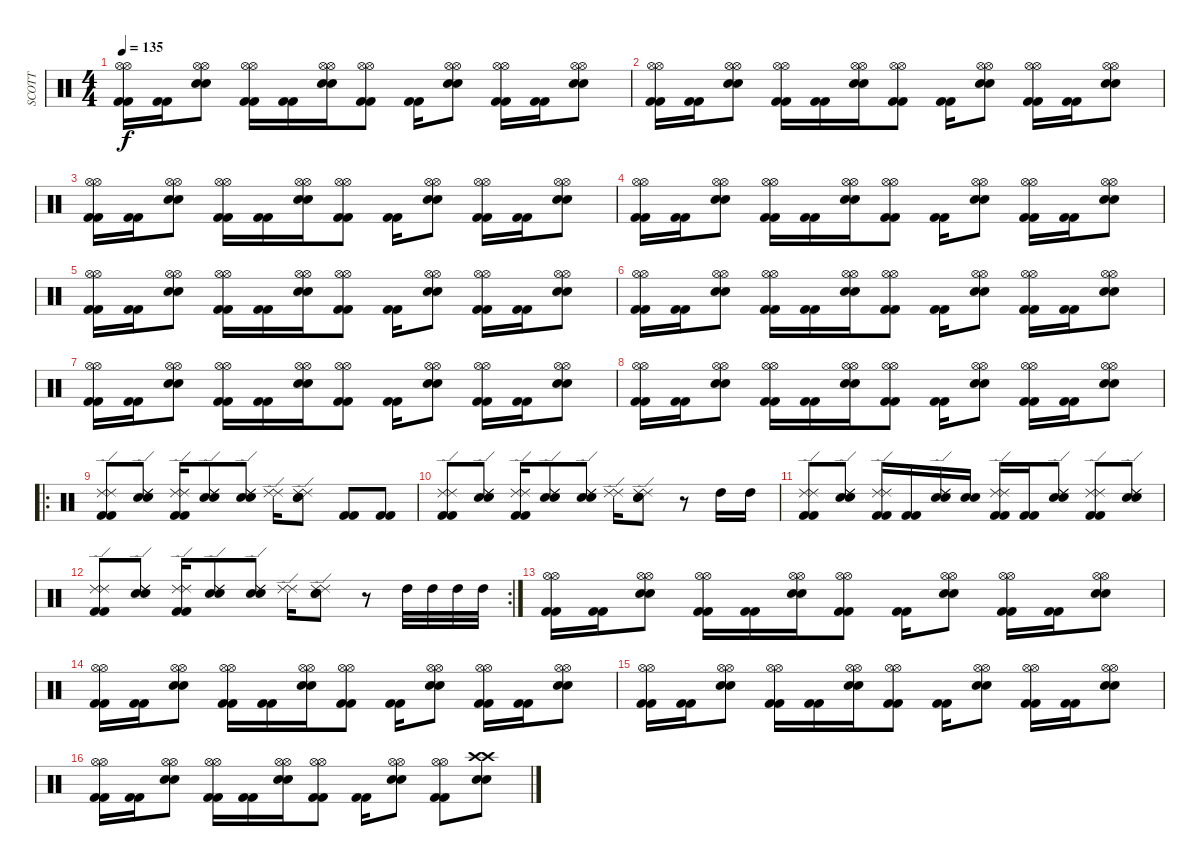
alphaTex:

\track ("SCOTT" "SCOTT") {instrument percussion}
\staff {score}
\articulation defaults
\ts (4 4)
\tempo 135
\clef neutral
\ks c
("Kick (hit) 2" "Kick (hit) 2" "Hi-Hat (open)" "Hi-Hat (open)").16{dy f} ("Kick (hit) 2" "Kick (hit) 2").16 ("Snare (hit) 2" "Snare (hit) 2" "Hi-Hat (open)" "Hi-Hat (open)").8 ("Kick (hit) 2" "Kick (hit) 2" "Hi-Hat (open)" "Hi-Hat (open)").16 ("Kick (hit) 2" "Kick (hit) 2").16 ("Snare (hit) 2" "Snare (hit) 2" "Hi-Hat (open)" "Hi-Hat (open)").16 ("Kick (hit) 2" "Kick (hit) 2" "Hi-Hat (open)" "Hi-Hat (open)").8 ("Kick (hit) 2" "Kick (hit) 2").16 ("Snare (hit) 2" "Snare (hit) 2" "Hi-Hat (open)" "Hi-Hat (open)").8 ("Kick (hit) 2" "Kick (hit) 2" "Hi-Hat (open)" "Hi-Hat (open)").16 ("Kick (hit) 2" "Kick (hit) 2").16 ("Snare (hit) 2" "Snare (hit) 2" "Hi-Hat (open)" "Hi-Hat (open)").8 |
("Kick (hit) 2" "Kick (hit) 2" "Hi-Hat (open)" "Hi-Hat (open)").16 ("Kick (hit) 2" "Kick (hit) 2").16 ("Snare (hit) 2" "Snare (hit) 2" "Hi-Hat (open)" "Hi-Hat (open)").8 ("Kick (hit) 2" "Kick (hit) 2" "Hi-Hat (open)" "Hi-Hat (open)").16 ("Kick (hit) 2" "Kick (hit) 2").16 ("Snare (hit) 2" "Snare (hit) 2" "Hi-Hat (open)" "Hi-Hat (open)").16 ("Kick (hit) 2" "Kick (hit) 2" "Hi-Hat (open)" "Hi-Hat (open)").8 ("Kick (hit) 2" "Kick (hit) 2").16 ("Snare (hit) 2" "Snare (hit) 2" "Hi-Hat (open)" "Hi-Hat (open)").8 ("Kick (hit) 2" "Kick (hit) 2" "Hi-Hat (open)" "Hi-Hat (open)").16 ("Kick (hit) 2" "Kick (hit) 2").16 ("Snare (hit) 2" "Snare (hit) 2" "Hi-Hat (open)" "Hi-Hat (open)").8 |
("Kick (hit) 2" "Kick (hit) 2" "Hi-Hat (open)" "Hi-Hat (open)").16 ("Kick (hit) 2" "Kick (hit) 2").16 ("Snare (hit) 2" "Snare (hit) 2" "Hi-Hat (open)" "Hi-Hat (open)").8 ("Kick (hit) 2" "Kick (hit) 2" "Hi-Hat (open)" "Hi-Hat (open)").16 ("Kick (hit) 2" "Kick (hit) 2").16 ("Snare (hit) 2" "Snare (hit) 2" "Hi-Hat (open)" "Hi-Hat (open)").16 ("Kick (hit) 2" "Kick (hit) 2" "Hi-Hat (open)" "Hi-Hat (open)").8 ("Kick (hit) 2" "Kick (hit) 2").16 ("Snare (hit) 2" "Snare (hit) 2" "Hi-Hat (open)" "Hi-Hat (open)").8 ("Kick (hit) 2" "Kick (hit) 2" "Hi-Hat (open)" "Hi-Hat (open)").16 ("Kick (hit) 2" "Kick (hit) 2").16 ("Snare (hit) 2" "Snare (hit) 2" "Hi-Hat (open)" "Hi-Hat (open)").8 |
("Kick (hit) 2" "Kick (hit) 2" "Hi-Hat (open)" "Hi-Hat (open)").16 ("Kick (hit) 2" "Kick (hit) 2").16 ("Snare (hit) 2" "Snare (hit) 2" "Hi-Hat (open)" "Hi-Hat (open)").8 ("Kick (hit) 2" "Kick (hit) 2" "Hi-Hat (open)" "Hi-Hat (open)").16 ("Kick (hit) 2" "Kick (hit) 2").16 ("Snare (hit) 2" "Snare (hit) 2" "Hi-Hat (open)" "Hi-Hat (open)").16 ("Kick (hit) 2" "Kick (hit) 2" "Hi-Hat (open)" "Hi-Hat (open)").8 ("Kick (hit) 2" "Kick (hit) 2").16 ("Snare (hit) 2" "Snare (hit) 2" "Hi-Hat (open)" "Hi-Hat (open)").8 ("Kick (hit) 2" "Kick (hit) 2" "Hi-Hat (open)" "Hi-Hat (open)").16 ("Kick (hit) 2" "Kick (hit) 2").16 ("Snare (hit) 2" "Snare (hit) 2" "Hi-Hat (open)" "Hi-Hat (open)").8 |
("Kick (hit) 2" "Kick (hit) 2" "Hi-Hat (open)" "Hi-Hat (open)").16 ("Kick (hit) 2" "Kick (hit) 2").16 ("Snare (hit) 2" "Snare (hit) 2" "Hi-Hat (open)" "Hi-Hat (open)").8 ("Kick (hit) 2" "Kick (hit) 2" "Hi-Hat (open)" "Hi-Hat (open)").16 ("Kick (hit) 2" "Kick (hit) 2").16 ("Snare (hit) 2" "Snare (hit) 2" "Hi-Hat (open)" "Hi-Hat (open)").16 ("Kick (hit) 2" "Kick (hit) 2" "Hi-Hat (open)" "Hi-Hat (open)").8 ("Kick (hit) 2" "Kick (hit) 2").16 ("Snare (hit) 2" "Snare (hit) 2" "Hi-Hat (open)" "Hi-Hat (open)").8 ("Kick (hit) 2" "Kick (hit) 2" "Hi-Hat (open)" "Hi-Hat (open)").16 ("Kick (hit) 2" "Kick (hit) 2").16 ("Snare (hit) 2" "Snare (hit) 2" "Hi-Hat (open)" "Hi-Hat (open)").8 |
("Kick (hit) 2" "Kick (hit) 2" "Hi-Hat (open)" "Hi-Hat (open)").16 ("Kick (hit) 2" "Kick (hit) 2").16 ("Snare (hit) 2" "Snare (hit) 2" "Hi-Hat (open)" "Hi-Hat (open)").8 ("Kick (hit) 2" "Kick (hit) 2" "Hi-Hat (open)" "Hi-Hat (open)").16 ("Kick (hit) 2" "Kick (hit) 2").16 ("Snare (hit) 2" "Snare (hit) 2" "Hi-Hat (open)" "Hi-Hat (open)").16 ("Kick (hit) 2" "Kick (hit) 2" "Hi-Hat (open)" "Hi-Hat (open)").8 ("Kick (hit) 2" "Kick (hit) 2").16 ("Snare (hit) 2" "Snare (hit) 2" "Hi-Hat (open)" "Hi-Hat (open)").8 ("Kick (hit) 2" "Kick (hit) 2" "Hi-Hat (open)" "Hi-Hat (open)").16 ("Kick (hit) 2" "Kick (hit) 2").16 ("Snare (hit) 2" "Snare (hit) 2" "Hi-Hat (open)" "Hi-Hat (open)").8 |
("Kick (hit) 2" "Kick (hit) 2" "Hi-Hat (open)" "Hi-Hat (open)").16 ("Kick (hit) 2" "Kick (hit) 2").16 ("Snare (hit) 2" "Snare (hit) 2" "Hi-Hat (open)" "Hi-Hat (open)").8 ("Kick (hit) 2" "Kick (hit) 2" "Hi-Hat (open)" "Hi-Hat (open)").16 ("Kick (hit) 2" "Kick (hit) 2").16 ("Snare (hit) 2" "Snare (hit) 2" "Hi-Hat (open)" "Hi-Hat (open)").16 ("Kick (hit) 2" "Kick (hit) 2" "Hi-Hat (open)" "Hi-Hat (open)").8 ("Kick (hit) 2" "Kick (hit) 2").16 ("Snare (hit) 2" "Snare (hit) 2" "Hi-Hat (open)" "Hi-Hat (open)").8 ("Kick (hit) 2" "Kick (hit) 2" "Hi-Hat (open)" "Hi-Hat (open)").16 ("Kick (hit) 2" "Kick (hit) 2").16 ("Snare (hit) 2" "Snare (hit) 2" "Hi-Hat (open)" "Hi-Hat (open)").8 |
("Kick (hit) 2" "Kick (hit) 2" "Hi-Hat (open)" "Hi-Hat (open)").16 ("Kick (hit) 2" "Kick (hit) 2").16 ("Snare (hit) 2" "Snare (hit) 2" "Hi-Hat (open)" "Hi-Hat (open)").8 ("Kick (hit) 2" "Kick (hit) 2" "Hi-Hat (open)" "Hi-Hat (open)").16 ("Kick (hit) 2" "Kick (hit) 2").16 ("Snare (hit) 2" "Snare (hit) 2" "Hi-Hat (open)" "Hi-Hat (open)").16 ("Kick (hit) 2" "Kick (hit) 2" "Hi-Hat (open)" "Hi-Hat (open)").8 ("Kick (hit) 2" "Kick (hit) 2").16 ("Snare (hit) 2" "Snare (hit) 2" "Hi-Hat (open)" "Hi-Hat (open)").8 ("Kick (hit) 2" "Kick (hit) 2" "Hi-Hat (open)" "Hi-Hat (open)").16 ("Kick (hit) 2" "Kick (hit) 2").16 ("Snare (hit) 2" "Snare (hit) 2" "Hi-Hat (open)" "Hi-Hat (open)").8 |
\ro
("Ride (edge) 2" "Ride (edge) 2" "Kick (hit) 2" "Kick (hit) 2").8 ("Ride (edge) 2" "Ride (edge) 2" "Snare (hit) 2" "Snare (hit) 2").8 ("Ride (edge) 2" "Ride (edge) 2" "Kick (hit) 2" "Kick (hit) 2").16 ("Ride (edge) 2" "Ride (edge) 2" "Snare (hit) 2" "Snare (hit) 2").8 ("Ride (edge) 2" "Ride (edge) 2" "Snare (hit) 2" "Snare (hit) 2").8 ("Ride (edge) 2" "Ride (edge) 2").16 ("Ride (edge) 2" "Ride (edge) 2" "Snare (hit) 2" "Snare (hit) 2").8 ("Kick (hit) 2" "Kick (hit) 2").8 ("Kick (hit) 2" "Kick (hit) 2").8 |
("Ride (edge) 2" "Ride (edge) 2" "Kick (hit) 2" "Kick (hit) 2").8 ("Ride (edge) 2" "Ride (edge) 2" "Snare (hit) 2" "Snare (hit) 2").8 ("Ride (edge) 2" "Ride (edge) 2" "Kick (hit) 2" "Kick (hit) 2").16 ("Ride (edge) 2" "Ride (edge) 2" "Snare (hit) 2" "Snare (hit) 2").8 ("Ride (edge) 2" "Ride (edge) 2" "Snare (hit) 2" "Snare (hit) 2").8 ("Ride (edge) 2" "Ride (edge) 2").16 ("Ride (edge) 2" "Ride (edge) 2" "Snare (hit) 2" "Snare (hit) 2").8 r.8 "High Tom (hit)".16 "High Tom (hit)".16 |
("Ride (edge) 2" "Ride (edge) 2" "Kick (hit) 2" "Kick (hit) 2").8 ("Ride (edge) 2" "Ride (edge) 2" "Snare (hit) 2" "Snare (hit) 2").8 ("Ride (edge) 2" "Ride (edge) 2" "Kick (hit) 2" "Kick (hit) 2").16 ("Kick (hit) 2" "Kick (hit) 2").16 ("Ride (edge) 2" "Ride (edge) 2" "Snare (hit) 2" "Snare (hit) 2").16 ("Snare (hit) 2" "Snare (hit) 2").16 ("Ride (edge) 2" "Ride (edge) 2" "Kick (hit) 2" "Kick (hit) 2").16 ("Kick (hit) 2" "Kick (hit) 2").16 ("Ride (edge) 2" "Ride (edge) 2" "Snare (hit) 2" "Snare (hit) 2").8 ("Ride (edge) 2" "Ride (edge) 2" "Kick (hit) 2" "Kick (hit) 2").8 ("Ride (edge) 2" "Ride (edge) 2" "Snare (hit) 2" "Snare (hit) 2").8 |
\rc 2
("Ride (edge) 2" "Ride (edge) 2" "Kick (hit) 2" "Kick (hit) 2").8 ("Ride (edge) 2" "Ride (edge) 2" "Snare (hit) 2" "Snare (hit) 2").8 ("Ride (edge) 2" "Ride (edge) 2" "Kick (hit) 2" "Kick (hit) 2").16 ("Ride (edge) 2" "Ride (edge) 2" "Snare (hit) 2" "Snare (hit) 2").8 ("Ride (edge) 2" "Ride (edge) 2" "Snare (hit) 2" "Snare (hit) 2").8 ("Ride (edge) 2" "Ride (edge) 2").16 ("Ride (edge) 2" "Ride (edge) 2" "Snare (hit) 2" "Snare (hit) 2").8 r.8 "High Tom (hit)".32 "High Tom (hit)".32 "High Tom (hit)".32 "High Tom (hit)".32 |
("Kick (hit) 2" "Kick (hit) 2" "Hi-Hat (open)" "Hi-Hat (open)").16 ("Kick (hit) 2" "Kick (hit) 2").16 ("Snare (hit) 2" "Snare (hit) 2" "Hi-Hat (open)" "Hi-Hat (open)").8 ("Kick (hit) 2" "Kick (hit) 2" "Hi-Hat (open)" "Hi-Hat (open)").16 ("Kick (hit) 2" "Kick (hit) 2").16 ("Snare (hit) 2" "Snare (hit) 2" "Hi-Hat (open)" "Hi-Hat (open)").16 ("Kick (hit) 2" "Kick (hit) 2" "Hi-Hat (open)" "Hi-Hat (open)").8 ("Kick (hit) 2" "Kick (hit) 2").16 ("Snare (hit) 2" "Snare (hit) 2" "Hi-Hat (open)" "Hi-Hat (open)").8 ("Kick (hit) 2" "Kick (hit) 2" "Hi-Hat (open)" "Hi-Hat (open)").16 ("Kick (hit) 2" "Kick (hit) 2").16 ("Snare (hit) 2" "Snare (hit) 2" "Hi-Hat (open)" "Hi-Hat (open)").8 |
("Kick (hit) 2" "Kick (hit) 2" "Hi-Hat (open)" "Hi-Hat (open)").16 ("Kick (hit) 2" "Kick (hit) 2").16 ("Snare (hit) 2" "Snare (hit) 2" "Hi-Hat (open)" "Hi-Hat (open)").8 ("Kick (hit) 2" "Kick (hit) 2" "Hi-Hat (open)" "Hi-Hat (open)").16 ("Kick (hit) 2" "Kick (hit) 2").16 ("Snare (hit) 2" "Snare (hit) 2" "Hi-Hat (open)" "Hi-Hat (open)").16 ("Kick (hit) 2" "Kick (hit) 2" "Hi-Hat (open)" "Hi-Hat (open)").8 ("Kick (hit) 2" "Kick (hit) 2").16 ("Snare (hit) 2" "Snare (hit) 2" "Hi-Hat (open)" "Hi-Hat (open)").8 ("Kick (hit) 2" "Kick (hit) 2" "Hi-Hat (open)" "Hi-Hat (open)").16 ("Kick (hit) 2" "Kick (hit) 2").16 ("Snare (hit) 2" "Snare (hit) 2" "Hi-Hat (open)" "Hi-Hat (open)").8 |
("Kick (hit) 2" "Kick (hit) 2" "Hi-Hat (open)" "Hi-Hat (open)").16 ("Kick (hit) 2" "Kick (hit) 2").16 ("Snare (hit) 2" "Snare (hit) 2" "Hi-Hat (open)" "Hi-Hat (open)").8 ("Kick (hit) 2" "Kick (hit) 2" "Hi-Hat (open)" "Hi-Hat (open)").16 ("Kick (hit) 2" "Kick (hit) 2").16 ("Snare (hit) 2" "Snare (hit) 2" "Hi-Hat (open)" "Hi-Hat (open)").16 ("Kick (hit) 2" "Kick (hit) 2" "Hi-Hat (open)" "Hi-Hat (open)").8 ("Kick (hit) 2" "Kick (hit) 2").16 ("Snare (hit) 2" "Snare (hit) 2" "Hi-Hat (open)" "Hi-Hat (open)").8 ("Kick (hit) 2" "Kick (hit) 2" "Hi-Hat (open)" "Hi-Hat (open)").16 ("Kick (hit) 2" "Kick (hit) 2").16 ("Snare (hit) 2" "Snare (hit) 2" "Hi-Hat (open)" "Hi-Hat (open)").8 |
("Kick (hit) 2" "Kick (hit) 2" "Hi-Hat (open)" "Hi-Hat (open)").16 ("Kick (hit) 2" "Kick (hit) 2").16 ("Snare (hit) 2" "Snare (hit) 2" "Hi-Hat (open)" "Hi-Hat (open)").8 ("Kick (hit) 2" "Kick (hit) 2" "Hi-Hat (open)" "Hi-Hat (open)").16 ("Kick (hit) 2" "Kick (hit) 2").16 ("Snare (hit) 2" "Snare (hit) 2" "Hi-Hat (open)" "Hi-Hat (open)").16 ("Kick (hit) 2" "Kick (hit) 2" "Hi-Hat (open)" "Hi-Hat (open)").8 ("Kick (hit) 2" "Kick (hit) 2").16 ("Snare (hit) 2" "Snare (hit) 2" "Hi-Hat (open)" "Hi-Hat (open)").8 ("Kick (hit) 2" "Kick (hit) 2" "Hi-Hat (open)" "Hi-Hat (open)").8 ("Snare (hit) 2" "Snare (hit) 2" "Crash high (hit)" "Crash high (hit)").8
